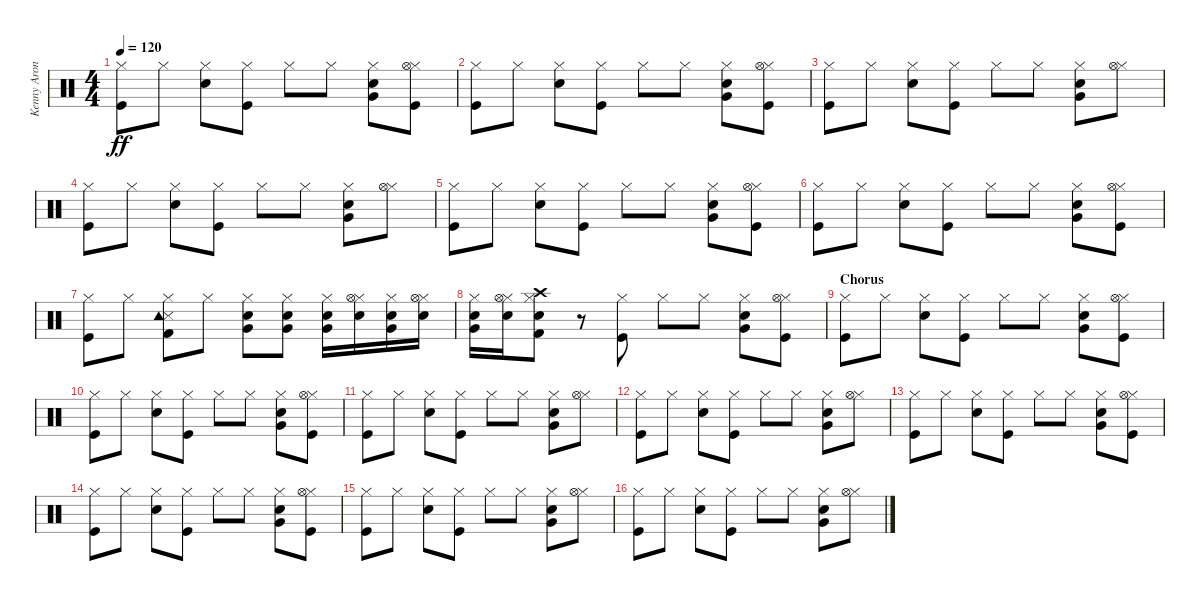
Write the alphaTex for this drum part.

\track ("Kenny Aronoff" "Kenny Aron") {instrument percussion}
\staff {score}
\articulation defaults
\ts (4 4)
\tempo 120
\clef neutral
\ks c
("Kick (hit)" "Hi-Hat (closed)").8{dy ff} "Hi-Hat (closed)".8 ("Snare (hit) 2" "Hi-Hat (closed)").8 ("Kick (hit)" "Hi-Hat (closed)").8 "Hi-Hat (closed)".8 "Hi-Hat (closed)".8 ("Snare (hit) 2" "Hi-Hat (closed)" "Very Low Tom (hit)").8 ("Kick (hit)" "Hi-Hat (closed)" "Hi-Hat (open)").8 |
("Kick (hit)" "Hi-Hat (closed)").8 "Hi-Hat (closed)".8 ("Snare (hit) 2" "Hi-Hat (closed)").8 ("Kick (hit)" "Hi-Hat (closed)").8 "Hi-Hat (closed)".8 "Hi-Hat (closed)".8 ("Snare (hit) 2" "Hi-Hat (closed)" "Very Low Tom (hit)").8 ("Kick (hit)" "Hi-Hat (closed)" "Hi-Hat (open)").8 |
("Kick (hit)" "Hi-Hat (closed)").8 "Hi-Hat (closed)".8 ("Snare (hit) 2" "Hi-Hat (closed)").8 ("Kick (hit)" "Hi-Hat (closed)").8 "Hi-Hat (closed)".8 "Hi-Hat (closed)".8 ("Snare (hit) 2" "Hi-Hat (closed)" "Very Low Tom (hit)").8 ("Hi-Hat (closed)" "Hi-Hat (open)").8 |
("Kick (hit)" "Hi-Hat (closed)").8 "Hi-Hat (closed)".8 ("Snare (hit) 2" "Hi-Hat (closed)").8 ("Kick (hit)" "Hi-Hat (closed)").8 "Hi-Hat (closed)".8 "Hi-Hat (closed)".8 ("Snare (hit) 2" "Hi-Hat (closed)" "Very Low Tom (hit)").8 ("Hi-Hat (closed)" "Hi-Hat (open)").8 |
("Kick (hit)" "Hi-Hat (closed)").8 "Hi-Hat (closed)".8 ("Snare (hit) 2" "Hi-Hat (closed)").8 ("Kick (hit)" "Hi-Hat (closed)").8 "Hi-Hat (closed)".8 "Hi-Hat (closed)".8 ("Snare (hit) 2" "Hi-Hat (closed)" "Very Low Tom (hit)").8 ("Kick (hit)" "Hi-Hat (closed)" "Hi-Hat (open)").8 |
("Kick (hit)" "Hi-Hat (closed)").8 "Hi-Hat (closed)".8 ("Snare (hit) 2" "Hi-Hat (closed)").8 ("Kick (hit)" "Hi-Hat (closed)").8 "Hi-Hat (closed)".8 "Hi-Hat (closed)".8 ("Snare (hit) 2" "Hi-Hat (closed)" "Very Low Tom (hit)").8 ("Kick (hit)" "Hi-Hat (closed)" "Hi-Hat (open)").8 |
("Kick (hit)" "Hi-Hat (closed)").8 "Hi-Hat (closed)".8 ("Kick (hit) 2" "Snare (side stick) 3" "Hi-Hat (closed)" "Tambourine (hit)").8 "Hi-Hat (closed)".8 ("Snare (hit) 2" "Hi-Hat (closed)" "Very Low Tom (hit)").8 ("Snare (hit) 2" "Hi-Hat (closed)" "Very Low Tom (hit)").8 ("Snare (hit) 2" "Hi-Hat (closed)" "Very Low Tom (hit)").16 ("Snare (hit) 2" "Hi-Hat (closed)" "Hi-Hat (open)").16 ("Snare (hit) 2" "Hi-Hat (closed)" "Very Low Tom (hit)").16 ("Snare (hit) 2" "Hi-Hat (closed)" "Hi-Hat (open)").16 |
("Snare (hit) 2" "Hi-Hat (closed)" "Very Low Tom (hit)").16 ("Snare (hit) 2" "Hi-Hat (closed)" "Hi-Hat (open)").16 ("Snare (hit) 2" "Kick (hit) 2" "Hi-Hat (closed)" "Crash high (hit)").8 r.8 ("Kick (hit)" "Hi-Hat (closed)").8 "Hi-Hat (closed)".8 "Hi-Hat (closed)".8 ("Snare (hit) 2" "Hi-Hat (closed)" "Very Low Tom (hit)").8 ("Kick (hit)" "Hi-Hat (closed)" "Hi-Hat (open)").8 |
\section ("" "Chorus")
("Kick (hit)" "Hi-Hat (closed)").8 "Hi-Hat (closed)".8 ("Snare (hit) 2" "Hi-Hat (closed)").8 ("Kick (hit)" "Hi-Hat (closed)").8 "Hi-Hat (closed)".8 "Hi-Hat (closed)".8 ("Snare (hit) 2" "Hi-Hat (closed)" "Very Low Tom (hit)").8 ("Kick (hit)" "Hi-Hat (closed)" "Hi-Hat (open)").8 |
("Kick (hit)" "Hi-Hat (closed)").8 "Hi-Hat (closed)".8 ("Snare (hit) 2" "Hi-Hat (closed)").8 ("Kick (hit)" "Hi-Hat (closed)").8 "Hi-Hat (closed)".8 "Hi-Hat (closed)".8 ("Snare (hit) 2" "Hi-Hat (closed)" "Very Low Tom (hit)").8 ("Kick (hit)" "Hi-Hat (closed)" "Hi-Hat (open)").8 |
("Kick (hit)" "Hi-Hat (closed)").8 "Hi-Hat (closed)".8 ("Snare (hit) 2" "Hi-Hat (closed)").8 ("Kick (hit)" "Hi-Hat (closed)").8 "Hi-Hat (closed)".8 "Hi-Hat (closed)".8 ("Snare (hit) 2" "Hi-Hat (closed)" "Very Low Tom (hit)").8 ("Hi-Hat (closed)" "Hi-Hat (open)").8 |
("Kick (hit)" "Hi-Hat (closed)").8 "Hi-Hat (closed)".8 ("Snare (hit) 2" "Hi-Hat (closed)").8 ("Kick (hit)" "Hi-Hat (closed)").8 "Hi-Hat (closed)".8 "Hi-Hat (closed)".8 ("Snare (hit) 2" "Hi-Hat (closed)" "Very Low Tom (hit)").8 ("Hi-Hat (closed)" "Hi-Hat (open)").8 |
("Kick (hit)" "Hi-Hat (closed)").8 "Hi-Hat (closed)".8 ("Snare (hit) 2" "Hi-Hat (closed)").8 ("Kick (hit)" "Hi-Hat (closed)").8 "Hi-Hat (closed)".8 "Hi-Hat (closed)".8 ("Snare (hit) 2" "Hi-Hat (closed)" "Very Low Tom (hit)").8 ("Kick (hit)" "Hi-Hat (closed)" "Hi-Hat (open)").8 |
("Kick (hit)" "Hi-Hat (closed)").8 "Hi-Hat (closed)".8 ("Snare (hit) 2" "Hi-Hat (closed)").8 ("Kick (hit)" "Hi-Hat (closed)").8 "Hi-Hat (closed)".8 "Hi-Hat (closed)".8 ("Snare (hit) 2" "Hi-Hat (closed)" "Very Low Tom (hit)").8 ("Kick (hit)" "Hi-Hat (closed)" "Hi-Hat (open)").8 |
("Kick (hit)" "Hi-Hat (closed)").8 "Hi-Hat (closed)".8 ("Snare (hit) 2" "Hi-Hat (closed)").8 ("Kick (hit)" "Hi-Hat (closed)").8 "Hi-Hat (closed)".8 "Hi-Hat (closed)".8 ("Snare (hit) 2" "Hi-Hat (closed)" "Very Low Tom (hit)").8 ("Hi-Hat (closed)" "Hi-Hat (open)").8 |
("Kick (hit)" "Hi-Hat (closed)").8 "Hi-Hat (closed)".8 ("Snare (hit) 2" "Hi-Hat (closed)").8 ("Kick (hit)" "Hi-Hat (closed)").8 "Hi-Hat (closed)".8 "Hi-Hat (closed)".8 ("Snare (hit) 2" "Hi-Hat (closed)" "Very Low Tom (hit)").8 ("Hi-Hat (closed)" "Hi-Hat (open)").8
